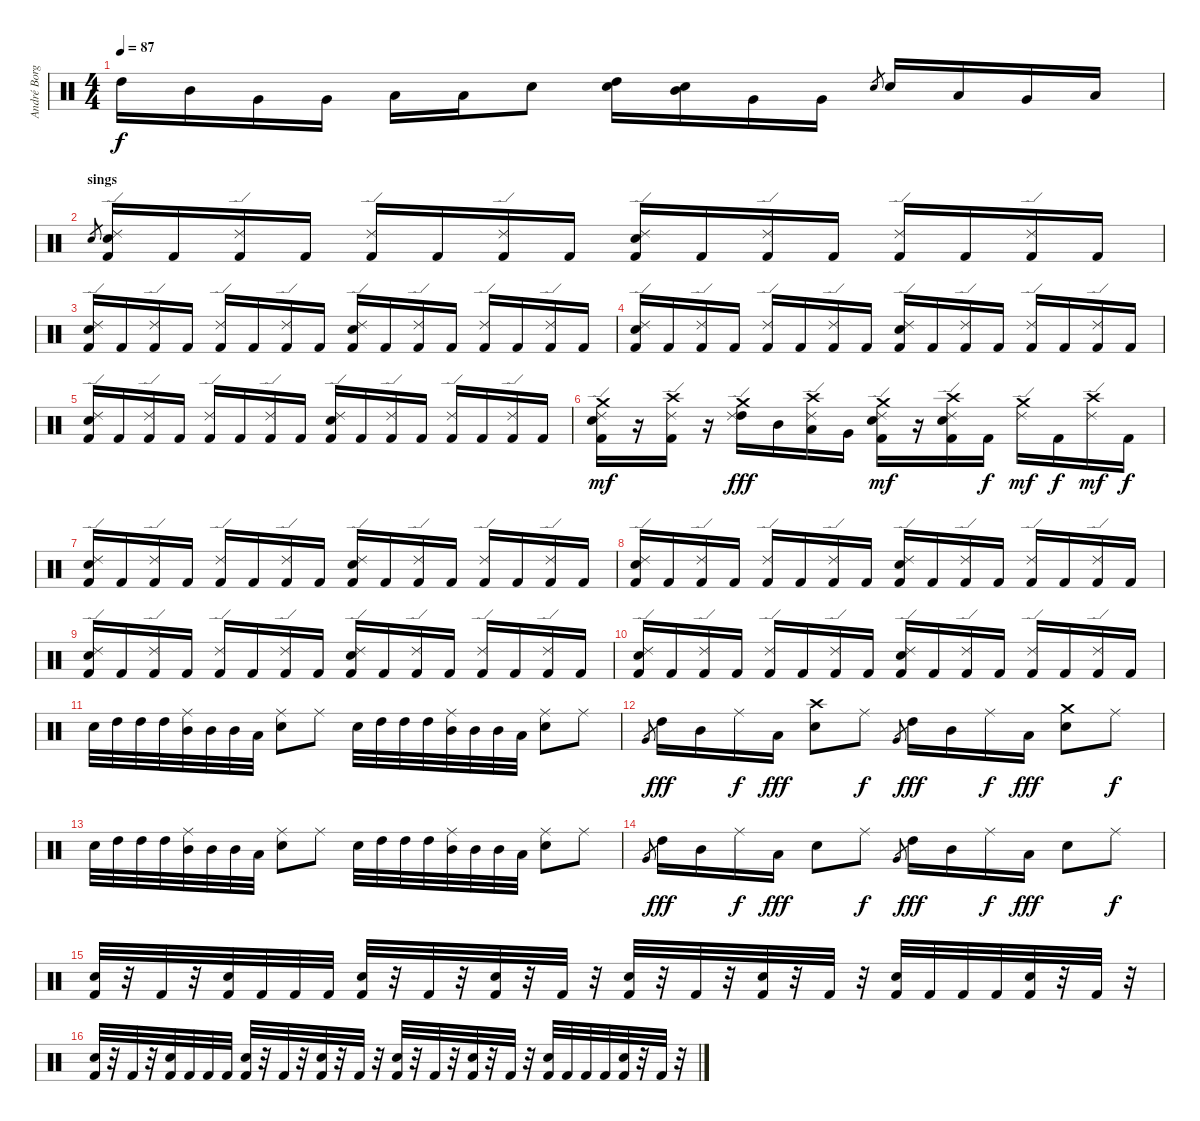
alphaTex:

\track ("André Borgman" "André Borg") {instrument percussion}
\staff {score}
\articulation defaults
\ts (4 4)
\tempo 87
\clef neutral
\ks c "High Tom (hit)".16{dy f} "Mid Tom (hit)".16 "Very Low Tom (hit)".16 "Very Low Tom (hit)".16 "Low Floor Tom (hit)".16 "Low Floor Tom (hit)".16 "Electric Snare (hit)".8
("Electric Snare (hit)" "High Tom (hit)").16 ("Electric Snare (hit)" "Mid Tom (hit)").16 "Very Low Tom (hit)".16 "Very Low Tom (hit)".16 "Electric Snare (hit)".8{gr} "Electric Snare (hit)".16 "Low Tom (hit)".16 "Very Low Tom (hit)".16 "Low Floor Tom (hit)".16 |
\section ("" "sings")
"Electric Snare (hit)".8{gr} ("Electric Snare (hit)" "Kick (hit) 2" "Ride (edge) 2").16 "Kick (hit) 2".16 ("Kick (hit) 2" "Ride (edge) 2").16 "Kick (hit) 2".16 ("Kick (hit) 2" "Ride (edge) 2").16 "Kick (hit) 2".16 ("Kick (hit) 2" "Ride (edge) 2").16 "Kick (hit) 2".16 ("Electric Snare (hit)" "Kick (hit) 2" "Ride (edge) 2").16 "Kick (hit) 2".16 ("Kick (hit) 2" "Ride (edge) 2").16 "Kick (hit) 2".16 ("Kick (hit) 2" "Ride (edge) 2").16 "Kick (hit) 2".16 ("Kick (hit) 2" "Ride (edge) 2").16 "Kick (hit) 2".16 |
("Electric Snare (hit)" "Kick (hit) 2" "Ride (edge) 2").16 "Kick (hit) 2".16 ("Kick (hit) 2" "Ride (edge) 2").16 "Kick (hit) 2".16 ("Kick (hit) 2" "Ride (edge) 2").16 "Kick (hit) 2".16 ("Kick (hit) 2" "Ride (edge) 2").16 "Kick (hit) 2".16 ("Electric Snare (hit)" "Kick (hit) 2" "Ride (edge) 2").16 "Kick (hit) 2".16 ("Kick (hit) 2" "Ride (edge) 2").16 "Kick (hit) 2".16 ("Kick (hit) 2" "Ride (edge) 2").16 "Kick (hit) 2".16 ("Kick (hit) 2" "Ride (edge) 2").16 "Kick (hit) 2".16 |
("Electric Snare (hit)" "Kick (hit) 2" "Ride (edge) 2").16 "Kick (hit) 2".16 ("Kick (hit) 2" "Ride (edge) 2").16 "Kick (hit) 2".16 ("Kick (hit) 2" "Ride (edge) 2").16 "Kick (hit) 2".16 ("Kick (hit) 2" "Ride (edge) 2").16 "Kick (hit) 2".16 ("Electric Snare (hit)" "Kick (hit) 2" "Ride (edge) 2").16 "Kick (hit) 2".16 ("Kick (hit) 2" "Ride (edge) 2").16 "Kick (hit) 2".16 ("Kick (hit) 2" "Ride (edge) 2").16 "Kick (hit) 2".16 ("Kick (hit) 2" "Ride (edge) 2").16 "Kick (hit) 2".16 |
("Electric Snare (hit)" "Kick (hit) 2" "Ride (edge) 2").16 "Kick (hit) 2".16 ("Kick (hit) 2" "Ride (edge) 2").16 "Kick (hit) 2".16 ("Kick (hit) 2" "Ride (edge) 2").16 "Kick (hit) 2".16 ("Kick (hit) 2" "Ride (edge) 2").16 "Kick (hit) 2".16 ("Electric Snare (hit)" "Kick (hit) 2" "Ride (edge) 2").16 "Kick (hit) 2".16 ("Kick (hit) 2" "Ride (edge) 2").16 "Kick (hit) 2".16 ("Kick (hit) 2" "Ride (edge) 2").16 "Kick (hit) 2".16 ("Kick (hit) 2" "Ride (edge) 2").16 "Kick (hit) 2".16 |
("Crash medium (hit)" "Electric Snare (hit)" "Kick (hit) 2" "Ride (edge) 2").16{dy mf} r.16 ("Crash high (hit)" "Kick (hit) 2" "Ride (edge) 2").16 r.16 ("Crash medium (hit)" "High Tom (hit)" "Ride (edge) 2").16{dy fff} "Mid Tom (hit)".16 ("Crash high (hit)" "Low Tom (hit)" "Ride (edge) 2").16 "Very Low Tom (hit)".16 ("Crash medium (hit)" "Electric Snare (hit)" "Kick (hit) 2" "Ride (edge) 2").16{dy mf} r.16 ("Crash high (hit)" "Electric Snare (hit)" "Kick (hit) 2" "Ride (edge) 2").16 "Kick (hit) 2".16{dy f} ("Crash medium (hit)" "Ride (edge) 2").16{dy mf} "Kick (hit) 2".16{dy f} ("Crash high (hit)" "Ride (edge) 2").16{dy mf} "Kick (hit) 2".16{dy f} |
("Electric Snare (hit)" "Kick (hit) 2" "Ride (edge) 2").16 "Kick (hit) 2".16 ("Kick (hit) 2" "Ride (edge) 2").16 "Kick (hit) 2".16 ("Kick (hit) 2" "Ride (edge) 2").16 "Kick (hit) 2".16 ("Kick (hit) 2" "Ride (edge) 2").16 "Kick (hit) 2".16 ("Electric Snare (hit)" "Kick (hit) 2" "Ride (edge) 2").16 "Kick (hit) 2".16 ("Kick (hit) 2" "Ride (edge) 2").16 "Kick (hit) 2".16 ("Kick (hit) 2" "Ride (edge) 2").16 "Kick (hit) 2".16 ("Kick (hit) 2" "Ride (edge) 2").16 "Kick (hit) 2".16 |
("Electric Snare (hit)" "Kick (hit) 2" "Ride (edge) 2").16 "Kick (hit) 2".16 ("Kick (hit) 2" "Ride (edge) 2").16 "Kick (hit) 2".16 ("Kick (hit) 2" "Ride (edge) 2").16 "Kick (hit) 2".16 ("Kick (hit) 2" "Ride (edge) 2").16 "Kick (hit) 2".16 ("Electric Snare (hit)" "Kick (hit) 2" "Ride (edge) 2").16 "Kick (hit) 2".16 ("Kick (hit) 2" "Ride (edge) 2").16 "Kick (hit) 2".16 ("Kick (hit) 2" "Ride (edge) 2").16 "Kick (hit) 2".16 ("Kick (hit) 2" "Ride (edge) 2").16 "Kick (hit) 2".16 |
("Electric Snare (hit)" "Kick (hit) 2" "Ride (edge) 2").16 "Kick (hit) 2".16 ("Kick (hit) 2" "Ride (edge) 2").16 "Kick (hit) 2".16 ("Kick (hit) 2" "Ride (edge) 2").16 "Kick (hit) 2".16 ("Kick (hit) 2" "Ride (edge) 2").16 "Kick (hit) 2".16 ("Electric Snare (hit)" "Kick (hit) 2" "Ride (edge) 2").16 "Kick (hit) 2".16 ("Kick (hit) 2" "Ride (edge) 2").16 "Kick (hit) 2".16 ("Kick (hit) 2" "Ride (edge) 2").16 "Kick (hit) 2".16 ("Kick (hit) 2" "Ride (edge) 2").16 "Kick (hit) 2".16 |
("Electric Snare (hit)" "Kick (hit) 2" "Ride (edge) 2").16 "Kick (hit) 2".16 ("Kick (hit) 2" "Ride (edge) 2").16 "Kick (hit) 2".16 ("Kick (hit) 2" "Ride (edge) 2").16 "Kick (hit) 2".16 ("Kick (hit) 2" "Ride (edge) 2").16 "Kick (hit) 2".16 ("Electric Snare (hit)" "Kick (hit) 2" "Ride (edge) 2").16 "Kick (hit) 2".16 ("Kick (hit) 2" "Ride (edge) 2").16 "Kick (hit) 2".16 ("Kick (hit) 2" "Ride (edge) 2").16 "Kick (hit) 2".16 ("Kick (hit) 2" "Ride (edge) 2").16 "Kick (hit) 2".16 |
"Electric Snare (hit)".32 "High Tom (hit)".32 "High Tom (hit)".32 "High Tom (hit)".32 ("Ride (middle)" "Mid Tom (hit)").32 "Mid Tom (hit)".32 "Mid Tom (hit)".32 "Low Tom (hit)".32 ("Ride (middle)" "Electric Snare (hit)").8 "Ride (middle)".8 "Electric Snare (hit)".32 "High Tom (hit)".32 "High Tom (hit)".32 "High Tom (hit)".32 ("Ride (middle)" "Mid Tom (hit)").32 "Mid Tom (hit)".32 "Mid Tom (hit)".32 "Low Tom (hit)".32 ("Ride (middle)" "Electric Snare (hit)").8 "Ride (middle)".8 |
"Very Low Tom (hit)".8{gr} "High Tom (hit)".16{dy fff} "Mid Tom (hit)".16 "Ride (middle)".16{dy f} "Low Tom (hit)".16{dy fff} ("Crash high (hit)" "Electric Snare (hit)").8 "Ride (middle)".8{dy f} "Very Low Tom (hit)".8{gr} "High Tom (hit)".16{dy fff} "Mid Tom (hit)".16 "Ride (middle)".16{dy f} "Low Tom (hit)".16{dy fff} ("Crash medium (hit)" "Electric Snare (hit)").8 "Ride (middle)".8{dy f} |
"Electric Snare (hit)".32 "High Tom (hit)".32 "High Tom (hit)".32 "High Tom (hit)".32 ("Ride (middle)" "Mid Tom (hit)").32 "Mid Tom (hit)".32 "Mid Tom (hit)".32 "Low Tom (hit)".32 ("Ride (middle)" "Electric Snare (hit)").8 "Ride (middle)".8 "Electric Snare (hit)".32 "High Tom (hit)".32 "High Tom (hit)".32 "High Tom (hit)".32 ("Ride (middle)" "Mid Tom (hit)").32 "Mid Tom (hit)".32 "Mid Tom (hit)".32 "Low Tom (hit)".32 ("Ride (middle)" "Electric Snare (hit)").8 "Ride (middle)".8 |
"Very Low Tom (hit)".8{gr} "High Tom (hit)".16{dy fff} "Mid Tom (hit)".16 "Ride (middle)".16{dy f} "Low Tom (hit)".16{dy fff} "Electric Snare (hit)".8 "Ride (middle)".8{dy f} "Very Low Tom (hit)".8{gr} "High Tom (hit)".16{dy fff} "Mid Tom (hit)".16 "Ride (middle)".16{dy f} "Low Tom (hit)".16{dy fff} "Electric Snare (hit)".8 "Ride (middle)".8{dy f} |
("Electric Snare (hit)" "Kick (hit) 2").32 r.32 "Kick (hit) 2".32 r.32 ("Electric Snare (hit)" "Kick (hit) 2").32 "Kick (hit) 2".32 "Kick (hit) 2".32 "Kick (hit) 2".32 ("Electric Snare (hit)" "Kick (hit) 2").32 r.32 "Kick (hit) 2".32 r.32 ("Electric Snare (hit)" "Kick (hit) 2").32 r.32 "Kick (hit) 2".32 r.32 ("Electric Snare (hit)" "Kick (hit) 2").32 r.32 "Kick (hit) 2".32 r.32 ("Electric Snare (hit)" "Kick (hit) 2").32 r.32 "Kick (hit) 2".32 r.32 ("Electric Snare (hit)" "Kick (hit) 2").32 "Kick (hit) 2".32 "Kick (hit) 2".32 "Kick (hit) 2".32 ("Electric Snare (hit)" "Kick (hit) 2").32 r.32 "Kick (hit) 2".32 r.32 |
("Electric Snare (hit)" "Kick (hit) 2").32 r.32 "Kick (hit) 2".32 r.32 ("Electric Snare (hit)" "Kick (hit) 2").32 "Kick (hit) 2".32 "Kick (hit) 2".32 "Kick (hit) 2".32 ("Electric Snare (hit)" "Kick (hit) 2").32 r.32 "Kick (hit) 2".32 r.32 ("Electric Snare (hit)" "Kick (hit) 2").32 r.32 "Kick (hit) 2".32 r.32 ("Electric Snare (hit)" "Kick (hit) 2").32 r.32 "Kick (hit) 2".32 r.32 ("Electric Snare (hit)" "Kick (hit) 2").32 r.32 "Kick (hit) 2".32 r.32 ("Electric Snare (hit)" "Kick (hit) 2").32 "Kick (hit) 2".32 "Kick (hit) 2".32 "Kick (hit) 2".32 ("Electric Snare (hit)" "Kick (hit) 2").32 r.32 "Kick (hit) 2".32 r.32
